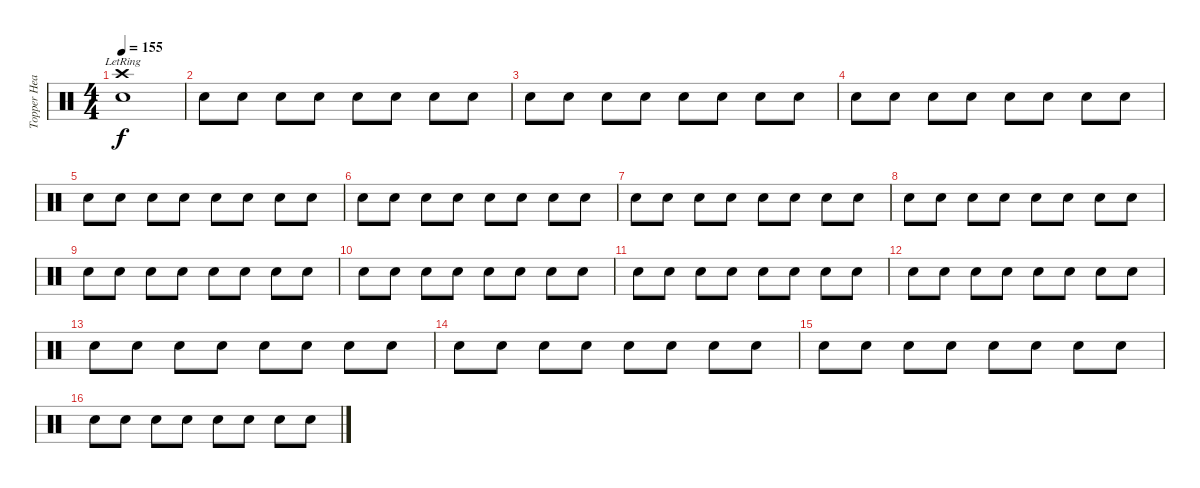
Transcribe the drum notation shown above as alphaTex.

\track ("Topper Headon - Drums" "Topper Hea") {instrument percussion}
\staff {score}
\articulation defaults
\ts (4 4)
\tempo 155
\clef neutral
\ks c
("Snare (hit) 2" "Crash high (hit)"{lr}).1{dy f volume 16} |
"Snare (hit) 2".8{volume 7} "Snare (hit) 2".8 "Snare (hit) 2".8 "Snare (hit) 2".8 "Snare (hit) 2".8 "Snare (hit) 2".8 "Snare (hit) 2".8 "Snare (hit) 2".8 |
"Snare (hit) 2".8{volume 7} "Snare (hit) 2".8 "Snare (hit) 2".8 "Snare (hit) 2".8 "Snare (hit) 2".8 "Snare (hit) 2".8 "Snare (hit) 2".8 "Snare (hit) 2".8 |
"Snare (hit) 2".8 "Snare (hit) 2".8 "Snare (hit) 2".8 "Snare (hit) 2".8 "Snare (hit) 2".8 "Snare (hit) 2".8 "Snare (hit) 2".8 "Snare (hit) 2".8 |
"Snare (hit) 2".8 "Snare (hit) 2".8 "Snare (hit) 2".8 "Snare (hit) 2".8 "Snare (hit) 2".8 "Snare (hit) 2".8 "Snare (hit) 2".8 "Snare (hit) 2".8 |
"Snare (hit) 2".8{volume 8} "Snare (hit) 2".8 "Snare (hit) 2".8 "Snare (hit) 2".8 "Snare (hit) 2".8 "Snare (hit) 2".8 "Snare (hit) 2".8 "Snare (hit) 2".8 |
"Snare (hit) 2".8 "Snare (hit) 2".8 "Snare (hit) 2".8 "Snare (hit) 2".8 "Snare (hit) 2".8 "Snare (hit) 2".8 "Snare (hit) 2".8 "Snare (hit) 2".8 |
"Snare (hit) 2".8 "Snare (hit) 2".8 "Snare (hit) 2".8 "Snare (hit) 2".8 "Snare (hit) 2".8 "Snare (hit) 2".8 "Snare (hit) 2".8 "Snare (hit) 2".8 |
"Snare (hit) 2".8 "Snare (hit) 2".8 "Snare (hit) 2".8 "Snare (hit) 2".8 "Snare (hit) 2".8 "Snare (hit) 2".8 "Snare (hit) 2".8 "Snare (hit) 2".8 |
"Snare (hit) 2".8{volume 10} "Snare (hit) 2".8 "Snare (hit) 2".8 "Snare (hit) 2".8 "Snare (hit) 2".8 "Snare (hit) 2".8 "Snare (hit) 2".8 "Snare (hit) 2".8 |
"Snare (hit) 2".8 "Snare (hit) 2".8 "Snare (hit) 2".8 "Snare (hit) 2".8 "Snare (hit) 2".8 "Snare (hit) 2".8 "Snare (hit) 2".8 "Snare (hit) 2".8 |
"Snare (hit) 2".8 "Snare (hit) 2".8 "Snare (hit) 2".8 "Snare (hit) 2".8 "Snare (hit) 2".8 "Snare (hit) 2".8 "Snare (hit) 2".8 "Snare (hit) 2".8 |
"Snare (hit) 2".8 "Snare (hit) 2".8 "Snare (hit) 2".8 "Snare (hit) 2".8 "Snare (hit) 2".8 "Snare (hit) 2".8 "Snare (hit) 2".8 "Snare (hit) 2".8 |
"Snare (hit) 2".8 "Snare (hit) 2".8 "Snare (hit) 2".8 "Snare (hit) 2".8 "Snare (hit) 2".8 "Snare (hit) 2".8 "Snare (hit) 2".8 "Snare (hit) 2".8 |
"Snare (hit) 2".8{volume 11} "Snare (hit) 2".8 "Snare (hit) 2".8 "Snare (hit) 2".8 "Snare (hit) 2".8 "Snare (hit) 2".8 "Snare (hit) 2".8 "Snare (hit) 2".8 |
"Snare (hit) 2".8{volume 12} "Snare (hit) 2".8 "Snare (hit) 2".8 "Snare (hit) 2".8 "Snare (hit) 2".8 "Snare (hit) 2".8 "Snare (hit) 2".8 "Snare (hit) 2".8
